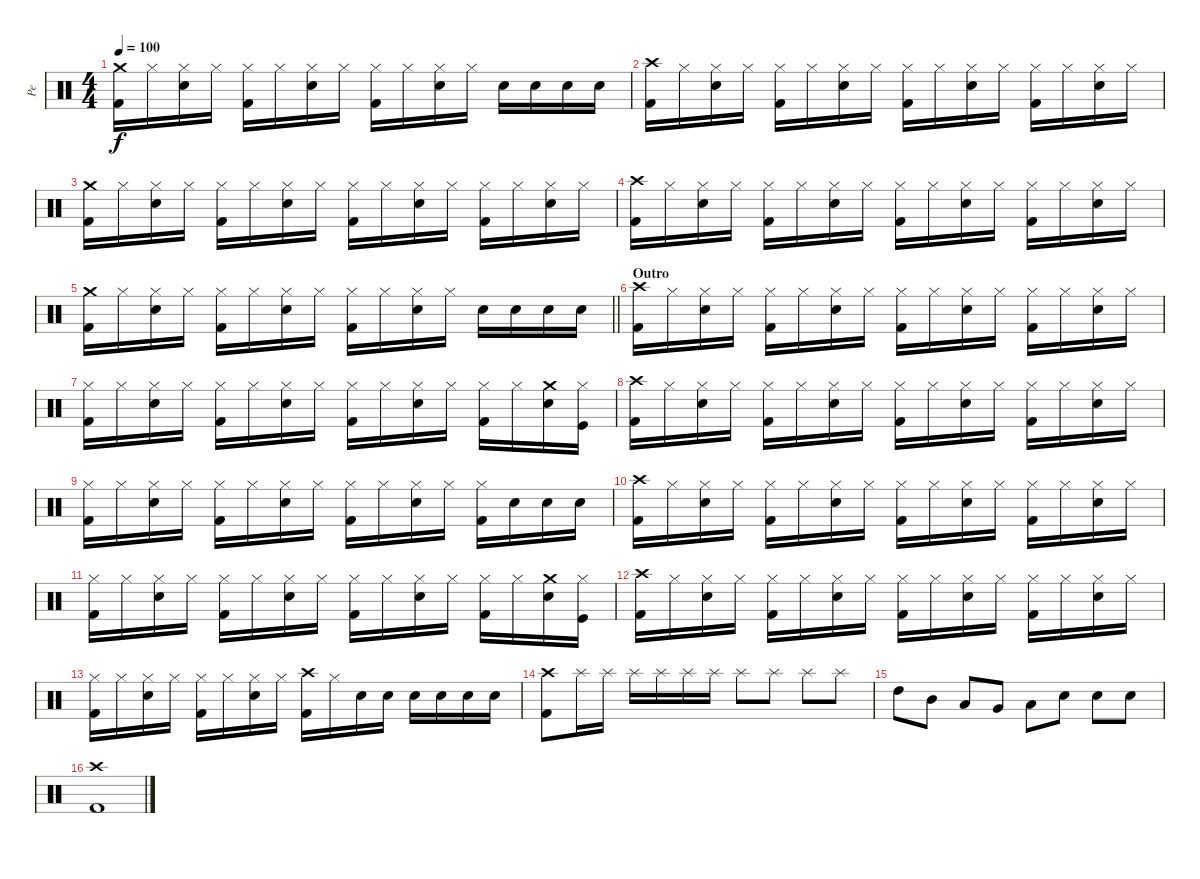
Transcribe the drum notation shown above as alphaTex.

\track ("Pe" "Pe") {instrument percussion}
\staff {score}
\articulation defaults
\ts (4 4)
\tempo 100
\clef neutral
\ks c
("Kick (hit) 2" "Crash medium (hit)").16{dy f} "Hi-Hat (closed)".16 ("Electric Snare (hit)" "Hi-Hat (closed)").16 "Hi-Hat (closed)".16 ("Kick (hit) 2" "Hi-Hat (closed)").16 "Hi-Hat (closed)".16 ("Electric Snare (hit)" "Hi-Hat (closed)").16 "Hi-Hat (closed)".16 ("Kick (hit) 2" "Hi-Hat (closed)").16 "Hi-Hat (closed)".16 ("Electric Snare (hit)" "Hi-Hat (closed)").16 "Hi-Hat (closed)".16 "Electric Snare (hit)".16 "Electric Snare (hit)".16 "Electric Snare (hit)".16 "Electric Snare (hit)".16 |
("Kick (hit) 2" "Crash high (hit)").16 "Hi-Hat (closed)".16 ("Electric Snare (hit)" "Hi-Hat (closed)").16 "Hi-Hat (closed)".16 ("Kick (hit) 2" "Hi-Hat (closed)").16 "Hi-Hat (closed)".16 ("Electric Snare (hit)" "Hi-Hat (closed)").16 "Hi-Hat (closed)".16 ("Kick (hit) 2" "Hi-Hat (closed)").16 "Hi-Hat (closed)".16 ("Electric Snare (hit)" "Hi-Hat (closed)").16 "Hi-Hat (closed)".16 ("Kick (hit) 2" "Hi-Hat (closed)").16 "Hi-Hat (closed)".16 ("Electric Snare (hit)" "Hi-Hat (closed)").16 "Hi-Hat (closed)".16 |
("Kick (hit) 2" "Crash medium (hit)").16 "Hi-Hat (closed)".16 ("Electric Snare (hit)" "Hi-Hat (closed)").16 "Hi-Hat (closed)".16 ("Kick (hit) 2" "Hi-Hat (closed)").16 "Hi-Hat (closed)".16 ("Electric Snare (hit)" "Hi-Hat (closed)").16 "Hi-Hat (closed)".16 ("Kick (hit) 2" "Hi-Hat (closed)").16 "Hi-Hat (closed)".16 ("Electric Snare (hit)" "Hi-Hat (closed)").16 "Hi-Hat (closed)".16 ("Kick (hit) 2" "Hi-Hat (closed)").16 "Hi-Hat (closed)".16 ("Electric Snare (hit)" "Hi-Hat (closed)").16 "Hi-Hat (closed)".16 |
("Kick (hit) 2" "Crash high (hit)").16 "Hi-Hat (closed)".16 ("Electric Snare (hit)" "Hi-Hat (closed)").16 "Hi-Hat (closed)".16 ("Kick (hit) 2" "Hi-Hat (closed)").16 "Hi-Hat (closed)".16 ("Electric Snare (hit)" "Hi-Hat (closed)").16 "Hi-Hat (closed)".16 ("Kick (hit) 2" "Hi-Hat (closed)").16 "Hi-Hat (closed)".16 ("Electric Snare (hit)" "Hi-Hat (closed)").16 "Hi-Hat (closed)".16 ("Kick (hit) 2" "Hi-Hat (closed)").16 "Hi-Hat (closed)".16 ("Electric Snare (hit)" "Hi-Hat (closed)").16 "Hi-Hat (closed)".16 |
\barLineRight lightlight
("Kick (hit) 2" "Crash medium (hit)").16 "Hi-Hat (closed)".16 ("Electric Snare (hit)" "Hi-Hat (closed)").16 "Hi-Hat (closed)".16 ("Kick (hit) 2" "Hi-Hat (closed)").16 "Hi-Hat (closed)".16 ("Electric Snare (hit)" "Hi-Hat (closed)").16 "Hi-Hat (closed)".16 ("Kick (hit) 2" "Hi-Hat (closed)").16 "Hi-Hat (closed)".16 ("Electric Snare (hit)" "Hi-Hat (closed)").16 "Hi-Hat (closed)".16 "Electric Snare (hit)".16 "Electric Snare (hit)".16 "Electric Snare (hit)".16 "Electric Snare (hit)".16 |
\section ("" "Outro")
("Kick (hit) 2" "Crash high (hit)").16 "Hi-Hat (closed)".16 ("Electric Snare (hit)" "Hi-Hat (closed)").16 "Hi-Hat (closed)".16 ("Kick (hit) 2" "Hi-Hat (closed)").16 "Hi-Hat (closed)".16 ("Electric Snare (hit)" "Hi-Hat (closed)").16 "Hi-Hat (closed)".16 ("Kick (hit) 2" "Hi-Hat (closed)").16 "Hi-Hat (closed)".16 ("Electric Snare (hit)" "Hi-Hat (closed)").16 "Hi-Hat (closed)".16 ("Kick (hit) 2" "Hi-Hat (closed)").16 "Hi-Hat (closed)".16 ("Electric Snare (hit)" "Hi-Hat (closed)").16 "Hi-Hat (closed)".16 |
("Kick (hit) 2" "Hi-Hat (closed)").16 "Hi-Hat (closed)".16 ("Electric Snare (hit)" "Hi-Hat (closed)").16 "Hi-Hat (closed)".16 ("Kick (hit) 2" "Hi-Hat (closed)").16 "Hi-Hat (closed)".16 ("Electric Snare (hit)" "Hi-Hat (closed)").16 "Hi-Hat (closed)".16 ("Kick (hit) 2" "Hi-Hat (closed)").16 "Hi-Hat (closed)".16 ("Electric Snare (hit)" "Hi-Hat (closed)").16 "Hi-Hat (closed)".16 ("Kick (hit) 2" "Hi-Hat (closed)").16 "Hi-Hat (closed)".16 ("Electric Snare (hit)" "Crash medium (hit)").16 ("Kick (hit)" "Hi-Hat (closed)").16 |
("Kick (hit) 2" "Crash high (hit)").16 "Hi-Hat (closed)".16 ("Electric Snare (hit)" "Hi-Hat (closed)").16 "Hi-Hat (closed)".16 ("Kick (hit) 2" "Hi-Hat (closed)").16 "Hi-Hat (closed)".16 ("Electric Snare (hit)" "Hi-Hat (closed)").16 "Hi-Hat (closed)".16 ("Kick (hit) 2" "Hi-Hat (closed)").16 "Hi-Hat (closed)".16 ("Electric Snare (hit)" "Hi-Hat (closed)").16 "Hi-Hat (closed)".16 ("Kick (hit) 2" "Hi-Hat (closed)").16 "Hi-Hat (closed)".16 ("Electric Snare (hit)" "Hi-Hat (closed)").16 "Hi-Hat (closed)".16 |
("Kick (hit) 2" "Hi-Hat (closed)").16 "Hi-Hat (closed)".16 ("Electric Snare (hit)" "Hi-Hat (closed)").16 "Hi-Hat (closed)".16 ("Kick (hit) 2" "Hi-Hat (closed)").16 "Hi-Hat (closed)".16 ("Electric Snare (hit)" "Hi-Hat (closed)").16 "Hi-Hat (closed)".16 ("Kick (hit) 2" "Hi-Hat (closed)").16 "Hi-Hat (closed)".16 ("Electric Snare (hit)" "Hi-Hat (closed)").16 "Hi-Hat (closed)".16 ("Kick (hit) 2" "Hi-Hat (closed)").16 "Electric Snare (hit)".16 "Electric Snare (hit)".16 "Electric Snare (hit)".16 |
("Kick (hit) 2" "Crash high (hit)").16 "Hi-Hat (closed)".16 ("Electric Snare (hit)" "Hi-Hat (closed)").16 "Hi-Hat (closed)".16 ("Kick (hit) 2" "Hi-Hat (closed)").16 "Hi-Hat (closed)".16 ("Electric Snare (hit)" "Hi-Hat (closed)").16 "Hi-Hat (closed)".16 ("Kick (hit) 2" "Hi-Hat (closed)").16 "Hi-Hat (closed)".16 ("Electric Snare (hit)" "Hi-Hat (closed)").16 "Hi-Hat (closed)".16 ("Kick (hit) 2" "Hi-Hat (closed)").16 "Hi-Hat (closed)".16 ("Electric Snare (hit)" "Hi-Hat (closed)").16 "Hi-Hat (closed)".16 |
("Kick (hit) 2" "Hi-Hat (closed)").16 "Hi-Hat (closed)".16 ("Electric Snare (hit)" "Hi-Hat (closed)").16 "Hi-Hat (closed)".16 ("Kick (hit) 2" "Hi-Hat (closed)").16 "Hi-Hat (closed)".16 ("Electric Snare (hit)" "Hi-Hat (closed)").16 "Hi-Hat (closed)".16 ("Kick (hit) 2" "Hi-Hat (closed)").16 "Hi-Hat (closed)".16 ("Electric Snare (hit)" "Hi-Hat (closed)").16 "Hi-Hat (closed)".16 ("Kick (hit) 2" "Hi-Hat (closed)").16 "Hi-Hat (closed)".16 ("Electric Snare (hit)" "Crash medium (hit)").16 ("Kick (hit)" "Hi-Hat (closed)").16 |
("Kick (hit) 2" "Crash high (hit)").16 "Hi-Hat (closed)".16 ("Electric Snare (hit)" "Hi-Hat (closed)").16 "Hi-Hat (closed)".16 ("Kick (hit) 2" "Hi-Hat (closed)").16 "Hi-Hat (closed)".16 ("Electric Snare (hit)" "Hi-Hat (closed)").16 "Hi-Hat (closed)".16 ("Kick (hit) 2" "Hi-Hat (closed)").16 "Hi-Hat (closed)".16 ("Electric Snare (hit)" "Hi-Hat (closed)").16 "Hi-Hat (closed)".16 ("Kick (hit) 2" "Hi-Hat (closed)").16 "Hi-Hat (closed)".16 ("Electric Snare (hit)" "Hi-Hat (closed)").16 "Hi-Hat (closed)".16 |
("Kick (hit) 2" "Hi-Hat (closed)").16 "Hi-Hat (closed)".16 ("Electric Snare (hit)" "Hi-Hat (closed)").16 "Hi-Hat (closed)".16 ("Kick (hit) 2" "Hi-Hat (closed)").16 "Hi-Hat (closed)".16 ("Electric Snare (hit)" "Hi-Hat (closed)").16 "Hi-Hat (closed)".16 ("Kick (hit) 2" "Crash high (hit)").16 "Hi-Hat (closed)".16 "Electric Snare (hit)".16 "Electric Snare (hit)".16 "Electric Snare (hit)".16 "Electric Snare (hit)".16 "Electric Snare (hit)".16 "Electric Snare (hit)".16 |
("Kick (hit) 2" "Crash high (hit)").8 "Splash (hit)".16 "Splash (hit)".16 "Splash (hit)".16 "Splash (hit)".16 "Splash (hit)".16 "Splash (hit)".16 "Splash (hit)".8 "Splash (hit)".8 "Splash (hit)".8 "Splash (hit)".8 |
"High Tom (hit)".8 "Mid Tom (hit)".8 "Low Tom (hit)".8 "Very Low Tom (hit)".8 "Low Floor Tom (hit)".8 "Electric Snare (hit)".8 "Electric Snare (hit)".8 "Electric Snare (hit)".8 |
("Kick (hit) 2" "Crash high (hit)").1
